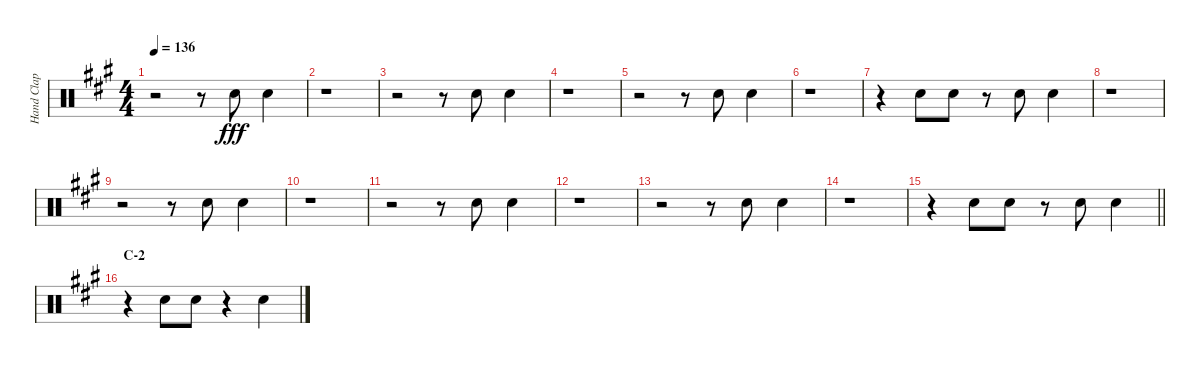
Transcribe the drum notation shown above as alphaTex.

\track ("Hand Clap" "Hand Clap") {instrument percussion}
\staff {score}
\articulation defaults
\ts (4 4)
\tempo 136
\clef neutral
\ks a
r.2{dy fff} r.8 "Hand Clap (hit)".8 "Hand Clap (hit)".4 |
r.1 |
r.2 r.8 "Hand Clap (hit)".8 "Hand Clap (hit)".4 |
r.1 |
r.2 r.8 "Hand Clap (hit)".8 "Hand Clap (hit)".4 |
r.1 |
r.4 "Hand Clap (hit)".8 "Hand Clap (hit)".8 r.8 "Hand Clap (hit)".8 "Hand Clap (hit)".4 |
r.1 |
r.2 r.8 "Hand Clap (hit)".8 "Hand Clap (hit)".4 |
r.1 |
r.2 r.8 "Hand Clap (hit)".8 "Hand Clap (hit)".4 |
r.1 |
r.2 r.8 "Hand Clap (hit)".8 "Hand Clap (hit)".4 |
r.1 |
\barLineRight lightlight
r.4 "Hand Clap (hit)".8 "Hand Clap (hit)".8 r.8 "Hand Clap (hit)".8 "Hand Clap (hit)".4 |
\section ("" "C-2")
r.4 "Hand Clap (hit)".8 "Hand Clap (hit)".8 r.4 "Hand Clap (hit)".4
